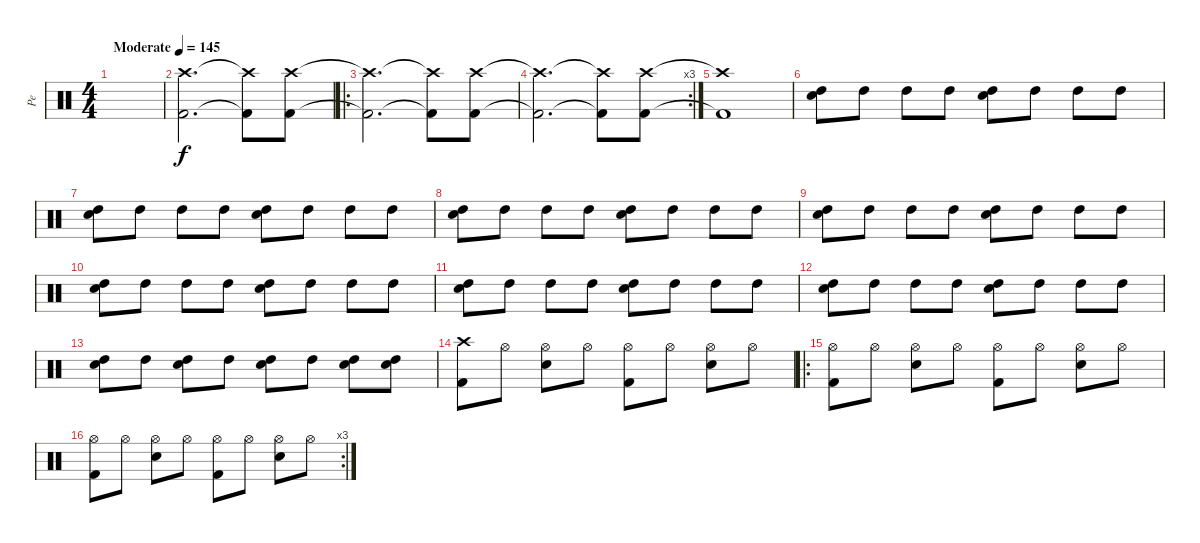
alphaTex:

\track ("Pe" "Pe") {instrument percussion}
\staff {score}
\articulation defaults
\ts (4 4)
\tempo (145 "Moderate")
\clef neutral
\ks c
|
("Crash high (hit)" "Kick (hit) 2").2{d} ("Crash high (hit)"{t} "Kick (hit) 2"{t}).8 ("Crash high (hit)" "Kick (hit) 2").8 |
\ro
("Crash high (hit)"{t} "Kick (hit) 2"{t}).2{d} ("Crash high (hit)"{t} "Kick (hit) 2"{t}).8 ("Crash high (hit)" "Kick (hit) 2").8 |
\rc 3
("Crash high (hit)"{t} "Kick (hit) 2"{t}).2{d} ("Crash high (hit)"{t} "Kick (hit) 2"{t}).8 ("Crash high (hit)" "Kick (hit) 2").8 |
("Crash high (hit)"{t} "Kick (hit) 2"{t}).1 |
("Snare (hit) 2" "High Tom (hit)").8 "High Tom (hit)".8 "High Tom (hit)".8 "High Tom (hit)".8 ("Snare (hit) 2" "High Tom (hit)").8 "High Tom (hit)".8 "High Tom (hit)".8 "High Tom (hit)".8 |
("Snare (hit) 2" "High Tom (hit)").8 "High Tom (hit)".8 "High Tom (hit)".8 "High Tom (hit)".8 ("Snare (hit) 2" "High Tom (hit)").8 "High Tom (hit)".8 "High Tom (hit)".8 "High Tom (hit)".8 |
("Snare (hit) 2" "High Tom (hit)").8 "High Tom (hit)".8 "High Tom (hit)".8 "High Tom (hit)".8 ("Snare (hit) 2" "High Tom (hit)").8 "High Tom (hit)".8 "High Tom (hit)".8 "High Tom (hit)".8 |
("Snare (hit) 2" "High Tom (hit)").8 "High Tom (hit)".8 "High Tom (hit)".8 "High Tom (hit)".8 ("Snare (hit) 2" "High Tom (hit)").8 "High Tom (hit)".8 "High Tom (hit)".8 "High Tom (hit)".8 |
("Snare (hit) 2" "High Tom (hit)").8 "High Tom (hit)".8 "High Tom (hit)".8 "High Tom (hit)".8 ("Snare (hit) 2" "High Tom (hit)").8 "High Tom (hit)".8 "High Tom (hit)".8 "High Tom (hit)".8 |
("Snare (hit) 2" "High Tom (hit)").8 "High Tom (hit)".8 "High Tom (hit)".8 "High Tom (hit)".8 ("Snare (hit) 2" "High Tom (hit)").8 "High Tom (hit)".8 "High Tom (hit)".8 "High Tom (hit)".8 |
("Snare (hit) 2" "High Tom (hit)").8 "High Tom (hit)".8 "High Tom (hit)".8 "High Tom (hit)".8 ("Snare (hit) 2" "High Tom (hit)").8 "High Tom (hit)".8 "High Tom (hit)".8 "High Tom (hit)".8 |
("Snare (hit) 2" "High Tom (hit)").8 "High Tom (hit)".8 ("Snare (hit) 2" "High Tom (hit)").8 "High Tom (hit)".8 ("Snare (hit) 2" "High Tom (hit)").8 "High Tom (hit)".8 ("Snare (hit) 2" "High Tom (hit)").8 ("Snare (hit) 2" "High Tom (hit)").8 |
("Kick (hit) 2" "Crash high (hit)").8 "Hi-Hat (open)".8 ("Snare (hit) 2" "Hi-Hat (open)").8 "Hi-Hat (open)".8 ("Kick (hit) 2" "Hi-Hat (open)").8 "Hi-Hat (open)".8 ("Snare (hit) 2" "Hi-Hat (open)").8 "Hi-Hat (open)".8 |
\ro
("Kick (hit) 2" "Hi-Hat (open)").8 "Hi-Hat (open)".8 ("Snare (hit) 2" "Hi-Hat (open)").8 "Hi-Hat (open)".8 ("Kick (hit) 2" "Hi-Hat (open)").8 "Hi-Hat (open)".8 ("Snare (hit) 2" "Hi-Hat (open)").8 "Hi-Hat (open)".8 |
\rc 3
("Kick (hit) 2" "Hi-Hat (open)").8 "Hi-Hat (open)".8 ("Snare (hit) 2" "Hi-Hat (open)").8 "Hi-Hat (open)".8 ("Kick (hit) 2" "Hi-Hat (open)").8 "Hi-Hat (open)".8 ("Snare (hit) 2" "Hi-Hat (open)").8 "Hi-Hat (open)".8
